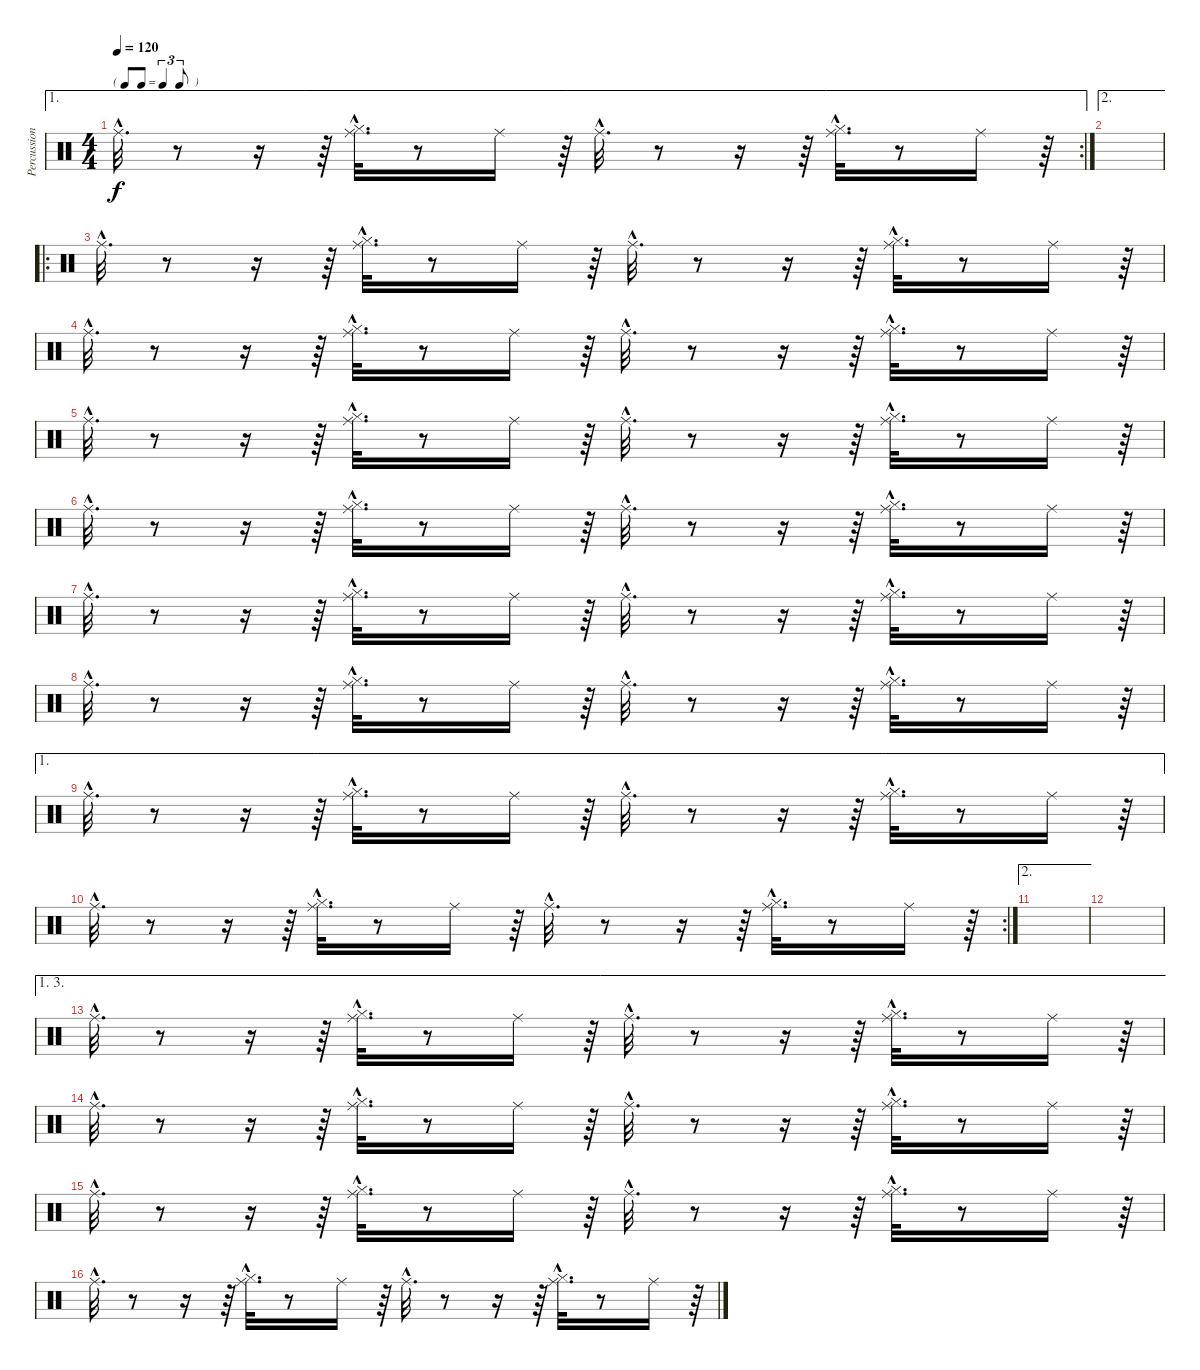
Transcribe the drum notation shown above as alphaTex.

\track ("Percussions" "Percussion") {instrument percussion}
\staff {score}
\articulation defaults
\ae 1
\rc 2
\ts (4 4)
\tf triplet8th
\tempo 120
\clef neutral
\ks c "Ride (middle)"{hac}.32{d dy f}
r.8 r.16 r.64 ("Hi-Hat (closed)"{hac} "Ride (middle)"{hac}).32{d} r.8 "Ride (middle)".16 r.64 "Ride (middle)"{hac}.32{d} r.8 r.16 r.64 ("Hi-Hat (closed)"{hac} "Ride (middle)"{hac}).32{d} r.8 "Ride (middle)".16 r.64 |
\ae 2
|
\ro "Ride (middle)"{hac}.32{d}
r.8 r.16 r.64 ("Hi-Hat (closed)"{hac} "Ride (middle)"{hac}).32{d} r.8 "Ride (middle)".16 r.64 "Ride (middle)"{hac}.32{d} r.8 r.16 r.64 ("Hi-Hat (closed)"{hac} "Ride (middle)"{hac}).32{d} r.8 "Ride (middle)".16 r.64 |
"Ride (middle)"{hac}.32{d} r.8 r.16 r.64 ("Hi-Hat (closed)"{hac} "Ride (middle)"{hac}).32{d} r.8 "Ride (middle)".16 r.64 "Ride (middle)"{hac}.32{d} r.8 r.16 r.64 ("Hi-Hat (closed)"{hac} "Ride (middle)"{hac}).32{d} r.8 "Ride (middle)".16 r.64 |
"Ride (middle)"{hac}.32{d} r.8 r.16 r.64 ("Hi-Hat (closed)"{hac} "Ride (middle)"{hac}).32{d} r.8 "Ride (middle)".16 r.64 "Ride (middle)"{hac}.32{d} r.8 r.16 r.64 ("Hi-Hat (closed)"{hac} "Ride (middle)"{hac}).32{d} r.8 "Ride (middle)".16 r.64 |
"Ride (middle)"{hac}.32{d} r.8 r.16 r.64 ("Hi-Hat (closed)"{hac} "Ride (middle)"{hac}).32{d} r.8 "Ride (middle)".16 r.64 "Ride (middle)"{hac}.32{d} r.8 r.16 r.64 ("Hi-Hat (closed)"{hac} "Ride (middle)"{hac}).32{d} r.8 "Ride (middle)".16 r.64 |
"Ride (middle)"{hac}.32{d} r.8 r.16 r.64 ("Hi-Hat (closed)"{hac} "Ride (middle)"{hac}).32{d} r.8 "Ride (middle)".16 r.64 "Ride (middle)"{hac}.32{d} r.8 r.16 r.64 ("Hi-Hat (closed)"{hac} "Ride (middle)"{hac}).32{d} r.8 "Ride (middle)".16 r.64 |
"Ride (middle)"{hac}.32{d} r.8 r.16 r.64 ("Hi-Hat (closed)"{hac} "Ride (middle)"{hac}).32{d} r.8 "Ride (middle)".16 r.64 "Ride (middle)"{hac}.32{d} r.8 r.16 r.64 ("Hi-Hat (closed)"{hac} "Ride (middle)"{hac}).32{d} r.8 "Ride (middle)".16 r.64 |
\ae 1 "Ride (middle)"{hac}.32{d}
r.8 r.16 r.64 ("Hi-Hat (closed)"{hac} "Ride (middle)"{hac}).32{d} r.8 "Ride (middle)".16 r.64 "Ride (middle)"{hac}.32{d} r.8 r.16 r.64 ("Hi-Hat (closed)"{hac} "Ride (middle)"{hac}).32{d} r.8 "Ride (middle)".16 r.64 |
\rc 2 "Ride (middle)"{hac}.32{d}
r.8 r.16 r.64 ("Hi-Hat (closed)"{hac} "Ride (middle)"{hac}).32{d} r.8 "Ride (middle)".16 r.64 "Ride (middle)"{hac}.32{d} r.8 r.16 r.64 ("Hi-Hat (closed)"{hac} "Ride (middle)"{hac}).32{d} r.8 "Ride (middle)".16 r.64 |
\ae 2
|
|
\ae (1 3)
"Ride (middle)"{hac}.32{d} r.8 r.16 r.64 ("Hi-Hat (closed)"{hac} "Ride (middle)"{hac}).32{d} r.8 "Ride (middle)".16 r.64 "Ride (middle)"{hac}.32{d} r.8 r.16 r.64 ("Hi-Hat (closed)"{hac} "Ride (middle)"{hac}).32{d} r.8 "Ride (middle)".16 r.64 |
"Ride (middle)"{hac}.32{d} r.8 r.16 r.64 ("Hi-Hat (closed)"{hac} "Ride (middle)"{hac}).32{d} r.8 "Ride (middle)".16 r.64 "Ride (middle)"{hac}.32{d} r.8 r.16 r.64 ("Hi-Hat (closed)"{hac} "Ride (middle)"{hac}).32{d} r.8 "Ride (middle)".16 r.64 |
"Ride (middle)"{hac}.32{d} r.8 r.16 r.64 ("Hi-Hat (closed)"{hac} "Ride (middle)"{hac}).32{d} r.8 "Ride (middle)".16 r.64 "Ride (middle)"{hac}.32{d} r.8 r.16 r.64 ("Hi-Hat (closed)"{hac} "Ride (middle)"{hac}).32{d} r.8 "Ride (middle)".16 r.64 |
"Ride (middle)"{hac}.32{d} r.8 r.16 r.64 ("Hi-Hat (closed)"{hac} "Ride (middle)"{hac}).32{d} r.8 "Ride (middle)".16 r.64 "Ride (middle)"{hac}.32{d} r.8 r.16 r.64 ("Hi-Hat (closed)"{hac} "Ride (middle)"{hac}).32{d} r.8 "Ride (middle)".16 r.64
